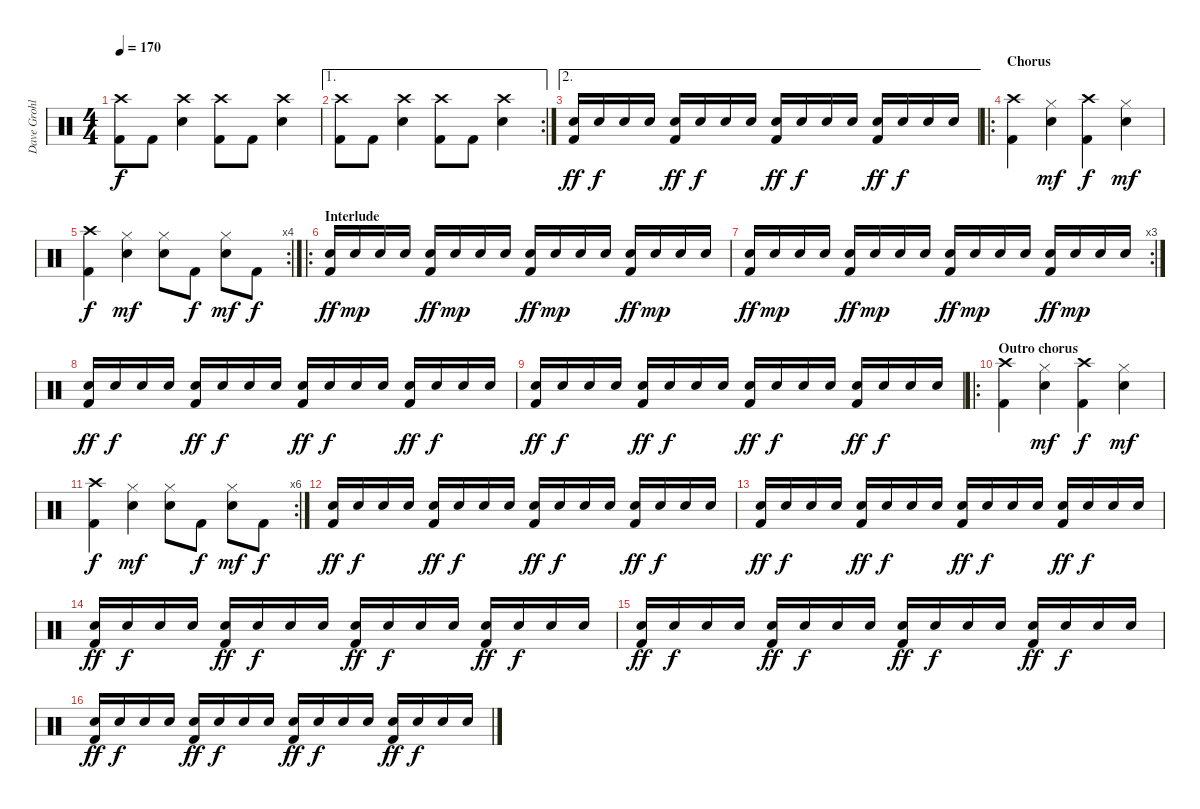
\track ("Dave Grohl" "Dave Grohl") {instrument percussion}
\staff {score}
\articulation defaults
\ts (4 4)
\tempo 170
\clef neutral
\ks c
("Crash high (hit)" "Kick (hit) 2").8{dy f} "Kick (hit) 2".8 ("Crash high (hit)" "Electric Snare (hit)").4 ("Crash high (hit)" "Kick (hit) 2").8 "Kick (hit) 2".8 ("Crash high (hit)" "Electric Snare (hit)").4 |
\ae 1
\rc 2
("Crash high (hit)" "Kick (hit) 2").8 "Kick (hit) 2".8 ("Crash high (hit)" "Electric Snare (hit)").4 ("Crash high (hit)" "Kick (hit) 2").8 "Kick (hit) 2".8 ("Crash high (hit)" "Electric Snare (hit)").4 |
\ae 2
("Electric Snare (hit)" "Kick (hit) 2").16{dy ff} "Electric Snare (hit)".16{dy f} "Electric Snare (hit)".16 "Electric Snare (hit)".16 ("Electric Snare (hit)" "Kick (hit) 2").16{dy ff} "Electric Snare (hit)".16{dy f} "Electric Snare (hit)".16 "Electric Snare (hit)".16 ("Electric Snare (hit)" "Kick (hit) 2").16{dy ff} "Electric Snare (hit)".16{dy f} "Electric Snare (hit)".16 "Electric Snare (hit)".16 ("Electric Snare (hit)" "Kick (hit) 2").16{dy ff} "Electric Snare (hit)".16{dy f} "Electric Snare (hit)".16 "Electric Snare (hit)".16 |
\ro
\section ("" "Chorus")
("Crash high (hit)" "Kick (hit) 2").4{volume 13} ("Hi-Hat (closed)" "Electric Snare (hit)").4{dy mf} ("Crash high (hit)" "Kick (hit) 2").4{dy f} ("Hi-Hat (closed)" "Electric Snare (hit)").4{dy mf} |
\rc 4
("Crash high (hit)" "Kick (hit) 2").4{dy f} ("Hi-Hat (closed)" "Electric Snare (hit)").4{dy mf} ("Hi-Hat (closed)" "Electric Snare (hit)").8 "Kick (hit) 2".8{dy f} ("Hi-Hat (closed)" "Electric Snare (hit)").8{dy mf} "Kick (hit) 2".8{dy f} |
\ro
\section ("" "Interlude")
("Electric Snare (hit)" "Kick (hit) 2").16{dy ff} "Electric Snare (hit)".16{dy mp} "Electric Snare (hit)".16 "Electric Snare (hit)".16 ("Electric Snare (hit)" "Kick (hit) 2").16{dy ff} "Electric Snare (hit)".16{dy mp} "Electric Snare (hit)".16 "Electric Snare (hit)".16 ("Electric Snare (hit)" "Kick (hit) 2").16{dy ff} "Electric Snare (hit)".16{dy mp} "Electric Snare (hit)".16 "Electric Snare (hit)".16 ("Electric Snare (hit)" "Kick (hit) 2").16{dy ff} "Electric Snare (hit)".16{dy mp} "Electric Snare (hit)".16 "Electric Snare (hit)".16 |
\rc 3
("Electric Snare (hit)" "Kick (hit) 2").16{dy ff} "Electric Snare (hit)".16{dy mp} "Electric Snare (hit)".16 "Electric Snare (hit)".16 ("Electric Snare (hit)" "Kick (hit) 2").16{dy ff} "Electric Snare (hit)".16{dy mp} "Electric Snare (hit)".16 "Electric Snare (hit)".16 ("Electric Snare (hit)" "Kick (hit) 2").16{dy ff} "Electric Snare (hit)".16{dy mp} "Electric Snare (hit)".16 "Electric Snare (hit)".16 ("Electric Snare (hit)" "Kick (hit) 2").16{dy ff} "Electric Snare (hit)".16{dy mp} "Electric Snare (hit)".16 "Electric Snare (hit)".16 |
("Electric Snare (hit)" "Kick (hit) 2").16{dy ff} "Electric Snare (hit)".16{dy f} "Electric Snare (hit)".16 "Electric Snare (hit)".16 ("Electric Snare (hit)" "Kick (hit) 2").16{dy ff} "Electric Snare (hit)".16{dy f} "Electric Snare (hit)".16 "Electric Snare (hit)".16 ("Electric Snare (hit)" "Kick (hit) 2").16{dy ff} "Electric Snare (hit)".16{dy f} "Electric Snare (hit)".16 "Electric Snare (hit)".16 ("Electric Snare (hit)" "Kick (hit) 2").16{dy ff} "Electric Snare (hit)".16{dy f} "Electric Snare (hit)".16 "Electric Snare (hit)".16 |
("Electric Snare (hit)" "Kick (hit) 2").16{dy ff} "Electric Snare (hit)".16{dy f} "Electric Snare (hit)".16 "Electric Snare (hit)".16 ("Electric Snare (hit)" "Kick (hit) 2").16{dy ff} "Electric Snare (hit)".16{dy f} "Electric Snare (hit)".16 "Electric Snare (hit)".16 ("Electric Snare (hit)" "Kick (hit) 2").16{dy ff} "Electric Snare (hit)".16{dy f} "Electric Snare (hit)".16 "Electric Snare (hit)".16 ("Electric Snare (hit)" "Kick (hit) 2").16{dy ff} "Electric Snare (hit)".16{dy f} "Electric Snare (hit)".16 "Electric Snare (hit)".16 |
\ro
\section ("" "Outro chorus")
("Crash high (hit)" "Kick (hit) 2").4{volume 13} ("Hi-Hat (closed)" "Electric Snare (hit)").4{dy mf} ("Crash high (hit)" "Kick (hit) 2").4{dy f} ("Hi-Hat (closed)" "Electric Snare (hit)").4{dy mf} |
\rc 6
("Crash high (hit)" "Kick (hit) 2").4{dy f} ("Hi-Hat (closed)" "Electric Snare (hit)").4{dy mf} ("Hi-Hat (closed)" "Electric Snare (hit)").8 "Kick (hit) 2".8{dy f} ("Hi-Hat (closed)" "Electric Snare (hit)").8{dy mf} "Kick (hit) 2".8{dy f} |
("Electric Snare (hit)" "Kick (hit) 2").16{dy ff} "Electric Snare (hit)".16{dy f} "Electric Snare (hit)".16 "Electric Snare (hit)".16 ("Electric Snare (hit)" "Kick (hit) 2").16{dy ff} "Electric Snare (hit)".16{dy f} "Electric Snare (hit)".16 "Electric Snare (hit)".16 ("Electric Snare (hit)" "Kick (hit) 2").16{dy ff} "Electric Snare (hit)".16{dy f} "Electric Snare (hit)".16 "Electric Snare (hit)".16 ("Electric Snare (hit)" "Kick (hit) 2").16{dy ff} "Electric Snare (hit)".16{dy f} "Electric Snare (hit)".16 "Electric Snare (hit)".16 |
("Electric Snare (hit)" "Kick (hit) 2").16{dy ff} "Electric Snare (hit)".16{dy f} "Electric Snare (hit)".16 "Electric Snare (hit)".16 ("Electric Snare (hit)" "Kick (hit) 2").16{dy ff} "Electric Snare (hit)".16{dy f} "Electric Snare (hit)".16 "Electric Snare (hit)".16 ("Electric Snare (hit)" "Kick (hit) 2").16{dy ff} "Electric Snare (hit)".16{dy f} "Electric Snare (hit)".16 "Electric Snare (hit)".16 ("Electric Snare (hit)" "Kick (hit) 2").16{dy ff} "Electric Snare (hit)".16{dy f} "Electric Snare (hit)".16 "Electric Snare (hit)".16 |
("Electric Snare (hit)" "Kick (hit) 2").16{dy ff} "Electric Snare (hit)".16{dy f} "Electric Snare (hit)".16 "Electric Snare (hit)".16 ("Electric Snare (hit)" "Kick (hit) 2").16{dy ff} "Electric Snare (hit)".16{dy f} "Electric Snare (hit)".16 "Electric Snare (hit)".16 ("Electric Snare (hit)" "Kick (hit) 2").16{dy ff} "Electric Snare (hit)".16{dy f} "Electric Snare (hit)".16 "Electric Snare (hit)".16 ("Electric Snare (hit)" "Kick (hit) 2").16{dy ff} "Electric Snare (hit)".16{dy f} "Electric Snare (hit)".16 "Electric Snare (hit)".16 |
("Electric Snare (hit)" "Kick (hit) 2").16{dy ff} "Electric Snare (hit)".16{dy f} "Electric Snare (hit)".16 "Electric Snare (hit)".16 ("Electric Snare (hit)" "Kick (hit) 2").16{dy ff} "Electric Snare (hit)".16{dy f} "Electric Snare (hit)".16 "Electric Snare (hit)".16 ("Electric Snare (hit)" "Kick (hit) 2").16{dy ff} "Electric Snare (hit)".16{dy f} "Electric Snare (hit)".16 "Electric Snare (hit)".16 ("Electric Snare (hit)" "Kick (hit) 2").16{dy ff} "Electric Snare (hit)".16{dy f} "Electric Snare (hit)".16 "Electric Snare (hit)".16 |
("Electric Snare (hit)" "Kick (hit) 2").16{dy ff} "Electric Snare (hit)".16{dy f} "Electric Snare (hit)".16 "Electric Snare (hit)".16 ("Electric Snare (hit)" "Kick (hit) 2").16{dy ff} "Electric Snare (hit)".16{dy f} "Electric Snare (hit)".16 "Electric Snare (hit)".16 ("Electric Snare (hit)" "Kick (hit) 2").16{dy ff} "Electric Snare (hit)".16{dy f} "Electric Snare (hit)".16 "Electric Snare (hit)".16 ("Electric Snare (hit)" "Kick (hit) 2").16{dy ff} "Electric Snare (hit)".16{dy f} "Electric Snare (hit)".16 "Electric Snare (hit)".16
